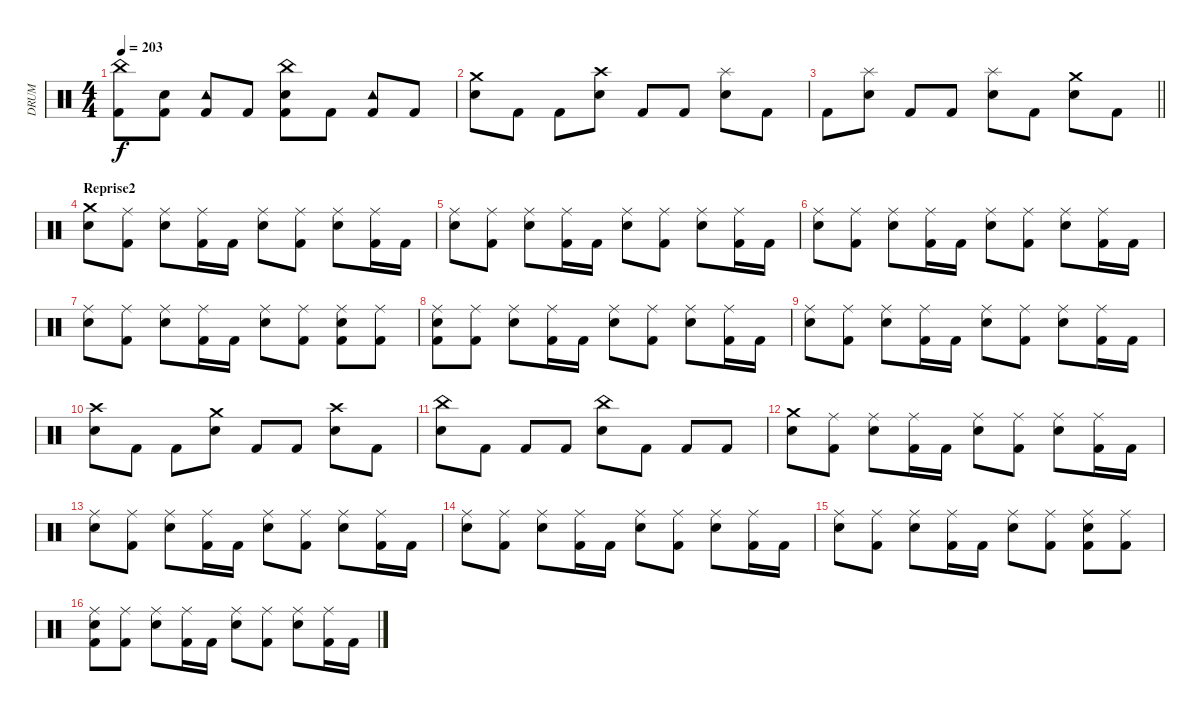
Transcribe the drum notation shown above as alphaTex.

\track ("DRUM" "DRUM") {instrument percussion bank 102}
\staff {score}
\articulation defaults
\ts (4 4)
\tempo 203
\clef neutral
\ks c
("China (hit)" "Kick (hit) 2").8{dy f} ("Electric Snare (hit)" "Kick (hit) 2").8 ("Tambourine (hit)" "Kick (hit) 2").8 "Kick (hit) 2".8 ("China (hit)" "Electric Snare (hit)" "Kick (hit) 2").8 "Kick (hit) 2".8 ("Tambourine (hit)" "Kick (hit) 2").8 "Kick (hit) 2".8 |
("Crash medium (hit)" "Electric Snare (hit)").8 "Kick (hit) 2".8 "Kick (hit) 2".8 ("Crash high (hit)" "Electric Snare (hit)").8 "Kick (hit) 2".8 "Kick (hit) 2".8 ("Splash (hit)" "Electric Snare (hit)").8 "Kick (hit) 2".8 |
\barLineRight lightlight "Kick (hit) 2".8
("Splash (hit)" "Electric Snare (hit)").8 "Kick (hit) 2".8 "Kick (hit) 2".8 ("Splash (hit)" "Electric Snare (hit)").8 "Kick (hit) 2".8 ("Crash medium (hit)" "Electric Snare (hit)").8 "Kick (hit) 2".8 |
\section ("" "Reprise2")
("Crash medium (hit)" "Electric Snare (hit)").8 ("Ride (middle)" "Kick (hit) 2").8 ("Ride (middle)" "Electric Snare (hit)").8 ("Ride (middle)" "Kick (hit) 2").16 "Kick (hit) 2".16 ("Ride (middle)" "Electric Snare (hit)").8 ("Ride (middle)" "Kick (hit) 2").8 ("Ride (middle)" "Electric Snare (hit)").8 ("Ride (middle)" "Kick (hit) 2").16 "Kick (hit) 2".16 |
("Ride (middle)" "Electric Snare (hit)").8 ("Ride (middle)" "Kick (hit) 2").8 ("Ride (middle)" "Electric Snare (hit)").8 ("Ride (middle)" "Kick (hit) 2").16 "Kick (hit) 2".16 ("Ride (middle)" "Electric Snare (hit)").8 ("Ride (middle)" "Kick (hit) 2").8 ("Ride (middle)" "Electric Snare (hit)").8 ("Ride (middle)" "Kick (hit) 2").16 "Kick (hit) 2".16 |
("Ride (middle)" "Electric Snare (hit)").8 ("Ride (middle)" "Kick (hit) 2").8 ("Ride (middle)" "Electric Snare (hit)").8 ("Ride (middle)" "Kick (hit) 2").16 "Kick (hit) 2".16 ("Ride (middle)" "Electric Snare (hit)").8 ("Ride (middle)" "Kick (hit) 2").8 ("Ride (middle)" "Electric Snare (hit)").8 ("Ride (middle)" "Kick (hit) 2").16 "Kick (hit) 2".16 |
("Ride (middle)" "Electric Snare (hit)").8 ("Ride (middle)" "Kick (hit) 2").8 ("Ride (middle)" "Electric Snare (hit)").8 ("Ride (middle)" "Kick (hit) 2").16 "Kick (hit) 2".16 ("Ride (middle)" "Electric Snare (hit)").8 ("Ride (middle)" "Kick (hit) 2").8 ("Ride (middle)" "Electric Snare (hit)" "Kick (hit) 2").8 ("Ride (middle)" "Kick (hit) 2").8 |
("Ride (middle)" "Electric Snare (hit)" "Kick (hit) 2").8 ("Ride (middle)" "Kick (hit) 2").8 ("Ride (middle)" "Electric Snare (hit)").8 ("Ride (middle)" "Kick (hit) 2").16 "Kick (hit) 2".16 ("Ride (middle)" "Electric Snare (hit)").8 ("Ride (middle)" "Kick (hit) 2").8 ("Ride (middle)" "Electric Snare (hit)").8 ("Ride (middle)" "Kick (hit) 2").16 "Kick (hit) 2".16 |
("Ride (middle)" "Electric Snare (hit)").8 ("Ride (middle)" "Kick (hit) 2").8 ("Ride (middle)" "Electric Snare (hit)").8 ("Ride (middle)" "Kick (hit) 2").16 "Kick (hit) 2".16 ("Ride (middle)" "Electric Snare (hit)").8 ("Ride (middle)" "Kick (hit) 2").8 ("Ride (middle)" "Electric Snare (hit)").8 ("Ride (middle)" "Kick (hit) 2").16 "Kick (hit) 2".16 |
("Crash high (hit)" "Electric Snare (hit)").8 "Kick (hit) 2".8 "Kick (hit) 2".8 ("Crash medium (hit)" "Electric Snare (hit)").8 "Kick (hit) 2".8 "Kick (hit) 2".8 ("Crash high (hit)" "Electric Snare (hit)").8 "Kick (hit) 2".8 |
("China (hit)" "Electric Snare (hit)").8 "Kick (hit) 2".8 "Kick (hit) 2".8 "Kick (hit) 2".8 ("China (hit)" "Electric Snare (hit)").8 "Kick (hit) 2".8 "Kick (hit) 2".8 "Kick (hit) 2".8 |
("Crash medium (hit)" "Electric Snare (hit)").8 ("Ride (middle)" "Kick (hit) 2").8 ("Ride (middle)" "Electric Snare (hit)").8 ("Ride (middle)" "Kick (hit) 2").16 "Kick (hit) 2".16 ("Ride (middle)" "Electric Snare (hit)").8 ("Ride (middle)" "Kick (hit) 2").8 ("Ride (middle)" "Electric Snare (hit)").8 ("Ride (middle)" "Kick (hit) 2").16 "Kick (hit) 2".16 |
("Ride (middle)" "Electric Snare (hit)").8 ("Ride (middle)" "Kick (hit) 2").8 ("Ride (middle)" "Electric Snare (hit)").8 ("Ride (middle)" "Kick (hit) 2").16 "Kick (hit) 2".16 ("Ride (middle)" "Electric Snare (hit)").8 ("Ride (middle)" "Kick (hit) 2").8 ("Ride (middle)" "Electric Snare (hit)").8 ("Ride (middle)" "Kick (hit) 2").16 "Kick (hit) 2".16 |
("Ride (middle)" "Electric Snare (hit)").8 ("Ride (middle)" "Kick (hit) 2").8 ("Ride (middle)" "Electric Snare (hit)").8 ("Ride (middle)" "Kick (hit) 2").16 "Kick (hit) 2".16 ("Ride (middle)" "Electric Snare (hit)").8 ("Ride (middle)" "Kick (hit) 2").8 ("Ride (middle)" "Electric Snare (hit)").8 ("Ride (middle)" "Kick (hit) 2").16 "Kick (hit) 2".16 |
("Ride (middle)" "Electric Snare (hit)").8 ("Ride (middle)" "Kick (hit) 2").8 ("Ride (middle)" "Electric Snare (hit)").8 ("Ride (middle)" "Kick (hit) 2").16 "Kick (hit) 2".16 ("Ride (middle)" "Electric Snare (hit)").8 ("Ride (middle)" "Kick (hit) 2").8 ("Ride (middle)" "Electric Snare (hit)" "Kick (hit) 2").8 ("Ride (middle)" "Kick (hit) 2").8 |
("Ride (middle)" "Electric Snare (hit)" "Kick (hit) 2").8 ("Ride (middle)" "Kick (hit) 2").8 ("Ride (middle)" "Electric Snare (hit)").8 ("Ride (middle)" "Kick (hit) 2").16 "Kick (hit) 2".16 ("Ride (middle)" "Electric Snare (hit)").8 ("Ride (middle)" "Kick (hit) 2").8 ("Ride (middle)" "Electric Snare (hit)").8 ("Ride (middle)" "Kick (hit) 2").16 "Kick (hit) 2".16
